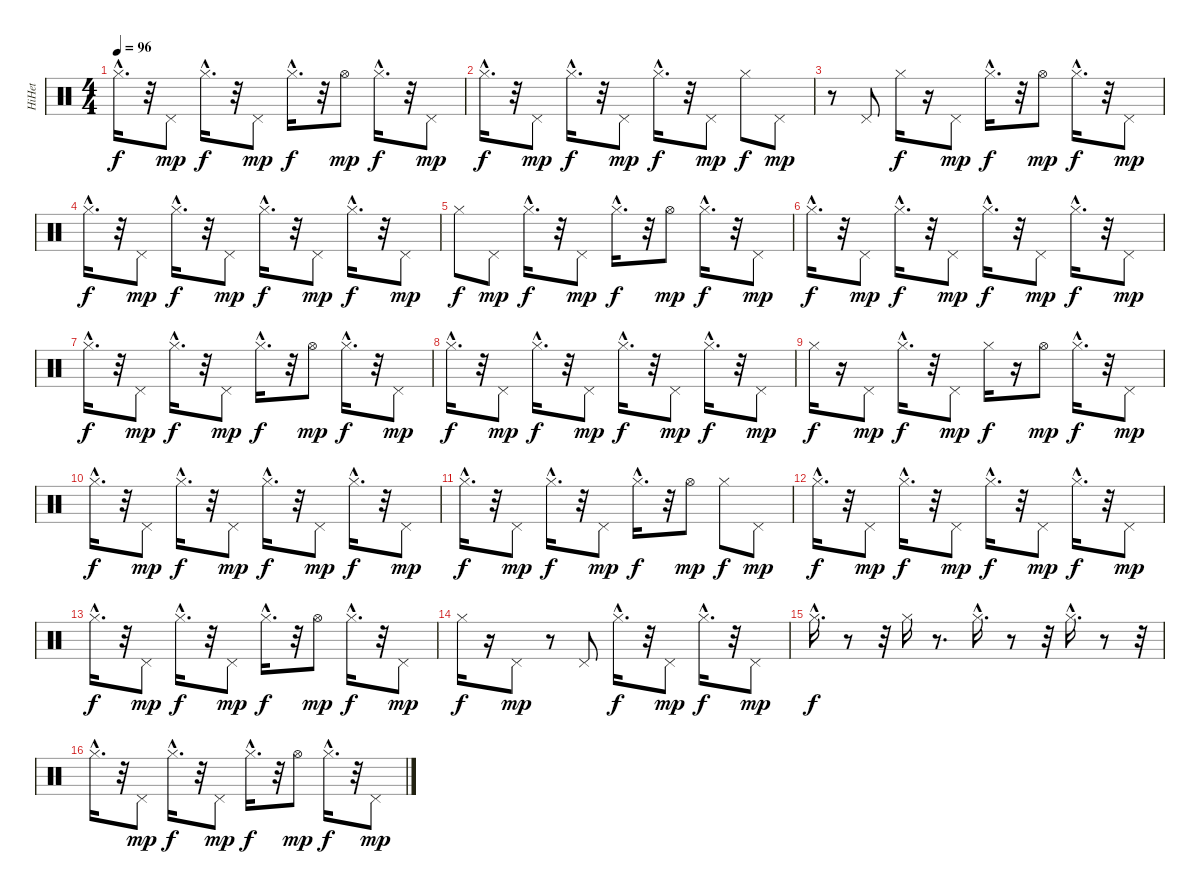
\track ("HiHet" "HiHet") {instrument percussion}
\staff {score}
\articulation defaults
\ts (4 4)
\tempo 96
\clef neutral
\ks c "Hi-Hat (closed)"{hac}.16{d dy f}
r.32 "Pedal Hi-Hat (hit)".8{dy mp} "Hi-Hat (closed)"{hac}.16{d dy f} r.32 "Pedal Hi-Hat (hit)".8{dy mp} "Hi-Hat (closed)"{hac}.16{d dy f} r.32 "Hi-Hat (open)".8{dy mp} "Hi-Hat (closed)"{hac}.16{d dy f} r.32 "Pedal Hi-Hat (hit)".8{dy mp} |
"Hi-Hat (closed)"{hac}.16{d dy f} r.32 "Pedal Hi-Hat (hit)".8{dy mp} "Hi-Hat (closed)"{hac}.16{d dy f} r.32 "Pedal Hi-Hat (hit)".8{dy mp} "Hi-Hat (closed)"{hac}.16{d dy f} r.32 "Pedal Hi-Hat (hit)".8{dy mp} "Hi-Hat (closed)".8{dy f} "Pedal Hi-Hat (hit)".8{dy mp} |
r.8 "Pedal Hi-Hat (hit)".8 "Hi-Hat (closed)".16{dy f} r.16 "Pedal Hi-Hat (hit)".8{dy mp} "Hi-Hat (closed)"{hac}.16{d dy f} r.32 "Hi-Hat (open)".8{dy mp} "Hi-Hat (closed)"{hac}.16{d dy f} r.32 "Pedal Hi-Hat (hit)".8{dy mp} |
"Hi-Hat (closed)"{hac}.16{d dy f} r.32 "Pedal Hi-Hat (hit)".8{dy mp} "Hi-Hat (closed)"{hac}.16{d dy f} r.32 "Pedal Hi-Hat (hit)".8{dy mp} "Hi-Hat (closed)"{hac}.16{d dy f} r.32 "Pedal Hi-Hat (hit)".8{dy mp} "Hi-Hat (closed)"{hac}.16{d dy f} r.32 "Pedal Hi-Hat (hit)".8{dy mp} |
"Hi-Hat (closed)".8{dy f} "Pedal Hi-Hat (hit)".8{dy mp} "Hi-Hat (closed)"{hac}.16{d dy f} r.32 "Pedal Hi-Hat (hit)".8{dy mp} "Hi-Hat (closed)"{hac}.16{d dy f} r.32 "Hi-Hat (open)".8{dy mp} "Hi-Hat (closed)"{hac}.16{d dy f} r.32 "Pedal Hi-Hat (hit)".8{dy mp} |
"Hi-Hat (closed)"{hac}.16{d dy f} r.32 "Pedal Hi-Hat (hit)".8{dy mp} "Hi-Hat (closed)"{hac}.16{d dy f} r.32 "Pedal Hi-Hat (hit)".8{dy mp} "Hi-Hat (closed)"{hac}.16{d dy f} r.32 "Pedal Hi-Hat (hit)".8{dy mp} "Hi-Hat (closed)"{hac}.16{d dy f} r.32 "Pedal Hi-Hat (hit)".8{dy mp} |
"Hi-Hat (closed)"{hac}.16{d dy f} r.32 "Pedal Hi-Hat (hit)".8{dy mp} "Hi-Hat (closed)"{hac}.16{d dy f} r.32 "Pedal Hi-Hat (hit)".8{dy mp} "Hi-Hat (closed)"{hac}.16{d dy f} r.32 "Hi-Hat (open)".8{dy mp} "Hi-Hat (closed)"{hac}.16{d dy f} r.32 "Pedal Hi-Hat (hit)".8{dy mp} |
"Hi-Hat (closed)"{hac}.16{d dy f} r.32 "Pedal Hi-Hat (hit)".8{dy mp} "Hi-Hat (closed)"{hac}.16{d dy f} r.32 "Pedal Hi-Hat (hit)".8{dy mp} "Hi-Hat (closed)"{hac}.16{d dy f} r.32 "Pedal Hi-Hat (hit)".8{dy mp} "Hi-Hat (closed)"{hac}.16{d dy f} r.32 "Pedal Hi-Hat (hit)".8{dy mp} |
"Hi-Hat (closed)".16{dy f} r.16 "Pedal Hi-Hat (hit)".8{dy mp} "Hi-Hat (closed)"{hac}.16{d dy f} r.32 "Pedal Hi-Hat (hit)".8{dy mp} "Hi-Hat (closed)".16{dy f} r.16 "Hi-Hat (open)".8{dy mp} "Hi-Hat (closed)"{hac}.16{d dy f} r.32 "Pedal Hi-Hat (hit)".8{dy mp} |
"Hi-Hat (closed)"{hac}.16{d dy f} r.32 "Pedal Hi-Hat (hit)".8{dy mp} "Hi-Hat (closed)"{hac}.16{d dy f} r.32 "Pedal Hi-Hat (hit)".8{dy mp} "Hi-Hat (closed)"{hac}.16{d dy f} r.32 "Pedal Hi-Hat (hit)".8{dy mp} "Hi-Hat (closed)"{hac}.16{d dy f} r.32 "Pedal Hi-Hat (hit)".8{dy mp} |
"Hi-Hat (closed)"{hac}.16{d dy f} r.32 "Pedal Hi-Hat (hit)".8{dy mp} "Hi-Hat (closed)"{hac}.16{d dy f} r.32 "Pedal Hi-Hat (hit)".8{dy mp} "Hi-Hat (closed)"{hac}.16{d dy f} r.32 "Hi-Hat (open)".8{dy mp} "Hi-Hat (closed)".8{dy f} "Pedal Hi-Hat (hit)".8{dy mp} |
"Hi-Hat (closed)"{hac}.16{d dy f} r.32 "Pedal Hi-Hat (hit)".8{dy mp} "Hi-Hat (closed)"{hac}.16{d dy f} r.32 "Pedal Hi-Hat (hit)".8{dy mp} "Hi-Hat (closed)"{hac}.16{d dy f} r.32 "Pedal Hi-Hat (hit)".8{dy mp} "Hi-Hat (closed)"{hac}.16{d dy f} r.32 "Pedal Hi-Hat (hit)".8{dy mp} |
"Hi-Hat (closed)"{hac}.16{d dy f} r.32 "Pedal Hi-Hat (hit)".8{dy mp} "Hi-Hat (closed)"{hac}.16{d dy f} r.32 "Pedal Hi-Hat (hit)".8{dy mp} "Hi-Hat (closed)"{hac}.16{d dy f} r.32 "Hi-Hat (open)".8{dy mp} "Hi-Hat (closed)"{hac}.16{d dy f} r.32 "Pedal Hi-Hat (hit)".8{dy mp} |
"Hi-Hat (closed)".16{dy f} r.16 "Pedal Hi-Hat (hit)".8{dy mp} r.8 "Pedal Hi-Hat (hit)".8 "Hi-Hat (closed)"{hac}.16{d dy f} r.32 "Pedal Hi-Hat (hit)".8{dy mp} "Hi-Hat (closed)"{hac}.16{d dy f} r.32 "Pedal Hi-Hat (hit)".8{dy mp} |
"Hi-Hat (closed)"{hac}.16{d dy f} r.8 r.32 "Hi-Hat (closed)".16 r.8{d} "Hi-Hat (closed)"{hac}.16{d} r.8 r.32 "Hi-Hat (closed)"{hac}.16{d} r.8 r.32 |
"Hi-Hat (closed)"{hac}.16{d} r.32 "Pedal Hi-Hat (hit)".8{dy mp} "Hi-Hat (closed)"{hac}.16{d dy f} r.32 "Pedal Hi-Hat (hit)".8{dy mp} "Hi-Hat (closed)"{hac}.16{d dy f} r.32 "Hi-Hat (open)".8{dy mp} "Hi-Hat (closed)"{hac}.16{d dy f} r.32 "Pedal Hi-Hat (hit)".8{dy mp}
